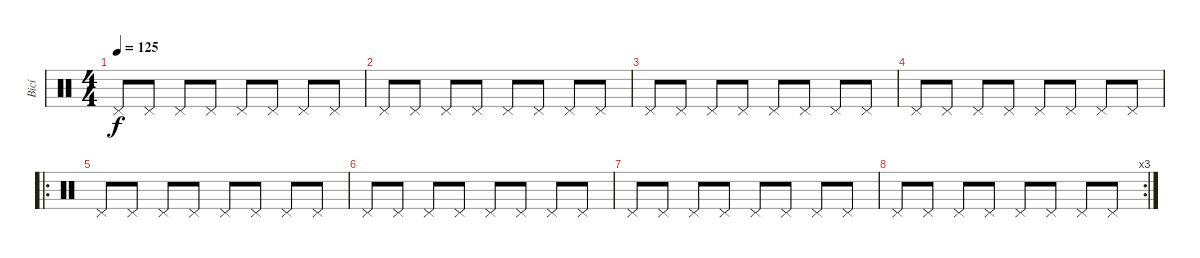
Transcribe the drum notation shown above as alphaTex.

\track ("Bicí" "Bicí") {instrument percussion}
\staff {score}
\articulation defaults
\ts (4 4)
\tempo 125
\clef neutral
\ks c "Pedal Hi-Hat (hit)".8{dy f} "Pedal Hi-Hat (hit)".8 "Pedal Hi-Hat (hit)".8 "Pedal Hi-Hat (hit)".8 "Pedal Hi-Hat (hit)".8 "Pedal Hi-Hat (hit)".8 "Pedal Hi-Hat (hit)".8 "Pedal Hi-Hat (hit)".8
|
"Pedal Hi-Hat (hit)".8 "Pedal Hi-Hat (hit)".8 "Pedal Hi-Hat (hit)".8 "Pedal Hi-Hat (hit)".8 "Pedal Hi-Hat (hit)".8 "Pedal Hi-Hat (hit)".8 "Pedal Hi-Hat (hit)".8 "Pedal Hi-Hat (hit)".8 |
"Pedal Hi-Hat (hit)".8 "Pedal Hi-Hat (hit)".8 "Pedal Hi-Hat (hit)".8 "Pedal Hi-Hat (hit)".8 "Pedal Hi-Hat (hit)".8 "Pedal Hi-Hat (hit)".8 "Pedal Hi-Hat (hit)".8 "Pedal Hi-Hat (hit)".8 |
"Pedal Hi-Hat (hit)".8 "Pedal Hi-Hat (hit)".8 "Pedal Hi-Hat (hit)".8 "Pedal Hi-Hat (hit)".8 "Pedal Hi-Hat (hit)".8 "Pedal Hi-Hat (hit)".8 "Pedal Hi-Hat (hit)".8 "Pedal Hi-Hat (hit)".8 |
\ro "Pedal Hi-Hat (hit)".8 "Pedal Hi-Hat (hit)".8 "Pedal Hi-Hat (hit)".8 "Pedal Hi-Hat (hit)".8 "Pedal Hi-Hat (hit)".8 "Pedal Hi-Hat (hit)".8 "Pedal Hi-Hat (hit)".8 "Pedal Hi-Hat (hit)".8
|
"Pedal Hi-Hat (hit)".8 "Pedal Hi-Hat (hit)".8 "Pedal Hi-Hat (hit)".8 "Pedal Hi-Hat (hit)".8 "Pedal Hi-Hat (hit)".8 "Pedal Hi-Hat (hit)".8 "Pedal Hi-Hat (hit)".8 "Pedal Hi-Hat (hit)".8 |
"Pedal Hi-Hat (hit)".8 "Pedal Hi-Hat (hit)".8 "Pedal Hi-Hat (hit)".8 "Pedal Hi-Hat (hit)".8 "Pedal Hi-Hat (hit)".8 "Pedal Hi-Hat (hit)".8 "Pedal Hi-Hat (hit)".8 "Pedal Hi-Hat (hit)".8 |
\rc 3 "Pedal Hi-Hat (hit)".8 "Pedal Hi-Hat (hit)".8 "Pedal Hi-Hat (hit)".8 "Pedal Hi-Hat (hit)".8 "Pedal Hi-Hat (hit)".8 "Pedal Hi-Hat (hit)".8 "Pedal Hi-Hat (hit)".8 "Pedal Hi-Hat (hit)".8
